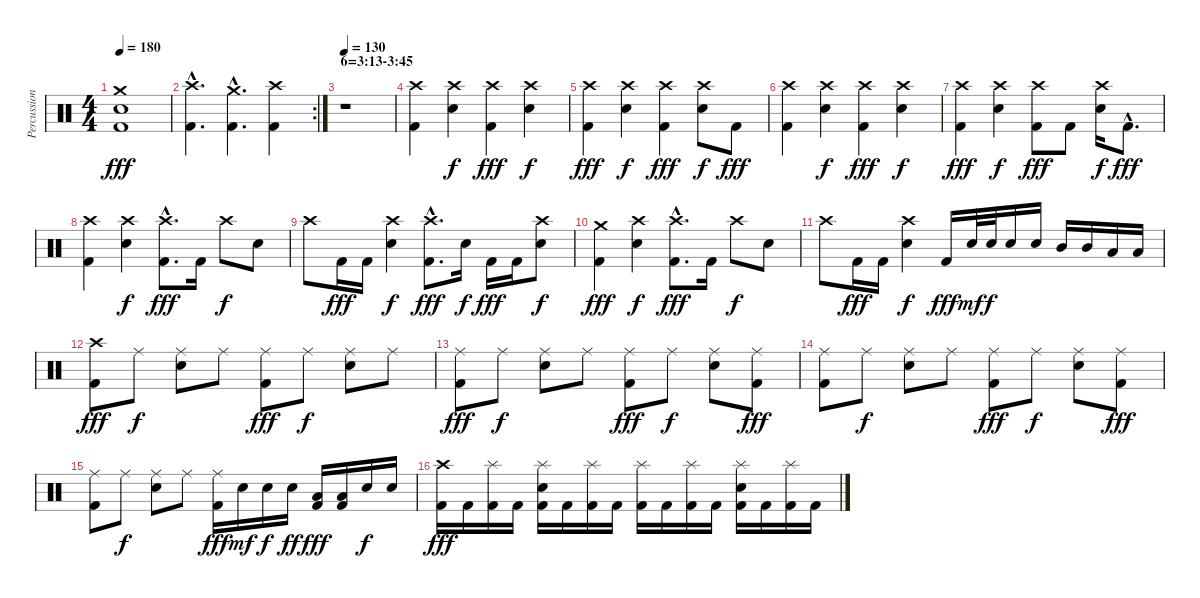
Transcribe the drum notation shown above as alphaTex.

\track ("Percussion" "Percussion") {instrument percussion}
\staff {score}
\articulation defaults
\ts (4 4)
\tempo 180
\clef neutral
\ks c
("Crash medium (hit)" "Snare (hit)"{t} "Kick (hit) 2").1{dy fff} |
\rc 2
("Crash high (hit)"{hac} "Kick (hit) 2"{hac}).4{d} ("Crash medium (hit)"{hac} "Kick (hit) 2"{hac}).4{d} ("Crash high (hit)" "Kick (hit) 2").4 |
\section ("" "6=3:13-3:45")
\tempo 130
r.1 |
("Crash high (hit)" "Kick (hit) 2").4 ("Crash high (hit)" "Snare (hit) 2").4{dy f} ("Crash high (hit)" "Kick (hit) 2").4{dy fff} ("Crash high (hit)" "Snare (hit) 2").4{dy f} |
("Crash high (hit)" "Kick (hit) 2").4{dy fff} ("Crash high (hit)" "Snare (hit) 2").4{dy f} ("Crash high (hit)" "Kick (hit) 2").4{dy fff} ("Crash high (hit)" "Snare (hit) 2").8{dy f} "Kick (hit) 2".8{dy fff} |
("Crash high (hit)" "Kick (hit) 2").4 ("Crash high (hit)" "Snare (hit) 2").4{dy f} ("Crash high (hit)" "Kick (hit) 2").4{dy fff} ("Crash high (hit)" "Snare (hit) 2").4{dy f} |
("Crash high (hit)" "Kick (hit) 2").4{dy fff} ("Crash high (hit)" "Snare (hit) 2").4{dy f} ("Crash high (hit)" "Kick (hit) 2").8{dy fff} "Kick (hit) 2".8 ("Crash high (hit)" "Snare (hit) 2").16{dy f} "Kick (hit) 2"{hac}.8{d dy fff} |
("Crash high (hit)" "Kick (hit) 2").4 ("Crash high (hit)" "Snare (hit) 2").4{dy f} ("Crash high (hit)"{hac} "Kick (hit) 2"{hac}).8{d dy fff} "Kick (hit) 2".16 "Crash high (hit)".8{dy f} "Snare (hit) 2".8 |
"Crash high (hit)".8 "Kick (hit) 2".16{dy fff} "Kick (hit) 2".16 ("Crash high (hit)" "Snare (hit) 2").4{dy f} ("Crash high (hit)"{hac} "Kick (hit) 2"{hac}).8{d dy fff} "Snare (hit) 2".16{dy f} "Kick (hit) 2".16{dy fff} "Kick (hit) 2".16 ("Crash high (hit)" "Snare (hit) 2").8{dy f} |
("Crash medium (hit)" "Kick (hit) 2").4{dy fff} ("Crash high (hit)" "Snare (hit) 2").4{dy f} ("Crash high (hit)"{hac} "Kick (hit) 2"{hac}).8{d dy fff} "Kick (hit) 2".16 "Crash high (hit)".8{dy f} "Snare (hit) 2".8 |
"Crash high (hit)".8 "Kick (hit) 2".16{dy fff} "Kick (hit) 2".16 ("Crash high (hit)" "Snare (hit) 2").4{dy f} "Kick (hit) 2".16{dy fff} "Snare (hit) 2".32{dy mf} "Snare (hit) 2".32{dy f} "Snare (hit) 2".16 "Snare (hit) 2".16 "Mid Tom (hit)".16 "Mid Tom (hit)".16 "Low Tom (hit)".16 "Low Tom (hit)".16 |
("Crash high (hit)" "Kick (hit) 2").8{dy fff} "Ride (middle)".8{dy f} ("Ride (middle)" "Snare (hit) 2").8 "Ride (middle)".8 ("Ride (middle)" "Kick (hit) 2").8{dy fff} "Ride (middle)".8{dy f} ("Ride (middle)" "Snare (hit) 2").8 "Ride (middle)".8 |
("Ride (middle)" "Kick (hit) 2").8{dy fff} "Ride (middle)".8{dy f} ("Ride (middle)" "Snare (hit) 2").8 "Ride (middle)".8 ("Ride (middle)" "Kick (hit) 2").8{dy fff} "Ride (middle)".8{dy f} ("Ride (middle)" "Snare (hit) 2").8 ("Ride (middle)" "Kick (hit) 2").8{dy fff} |
("Ride (middle)" "Kick (hit) 2").8 "Ride (middle)".8{dy f} ("Ride (middle)" "Snare (hit) 2").8 "Ride (middle)".8 ("Ride (middle)" "Kick (hit) 2").8{dy fff} "Ride (middle)".8{dy f} ("Ride (middle)" "Snare (hit) 2").8 ("Ride (middle)" "Kick (hit) 2").8{dy fff} |
("Ride (middle)" "Kick (hit) 2").8 "Ride (middle)".8{dy f} ("Ride (middle)" "Snare (hit) 2").8 "Ride (middle)".8 ("Ride (middle)" "Kick (hit) 2").16{dy fff} "Snare (hit) 2".16{dy mf} "Snare (hit) 2".16{dy f} "Snare (hit) 2".16{dy ff} ("Low Tom (hit)" "Kick (hit) 2").16{dy fff} ("Low Tom (hit)" "Kick (hit) 2").16 "Snare (hit) 2".16{dy f} "Snare (hit) 2".16 |
("Crash high (hit)" "Kick (hit) 2").16{dy fff} "Kick (hit) 2".16 ("Splash (hit)" "Kick (hit) 2").16 "Kick (hit) 2".16 ("Splash (hit)" "Snare (hit) 2" "Kick (hit) 2").16 "Kick (hit) 2".16 ("Splash (hit)" "Kick (hit) 2").16 "Kick (hit) 2".16 ("Splash (hit)" "Kick (hit) 2").16 "Kick (hit) 2".16 ("Splash (hit)" "Kick (hit) 2").16 "Kick (hit) 2".16 ("Splash (hit)" "Snare (hit) 2" "Kick (hit) 2").16 "Kick (hit) 2".16 ("Splash (hit)" "Kick (hit) 2").16 "Kick (hit) 2".16
